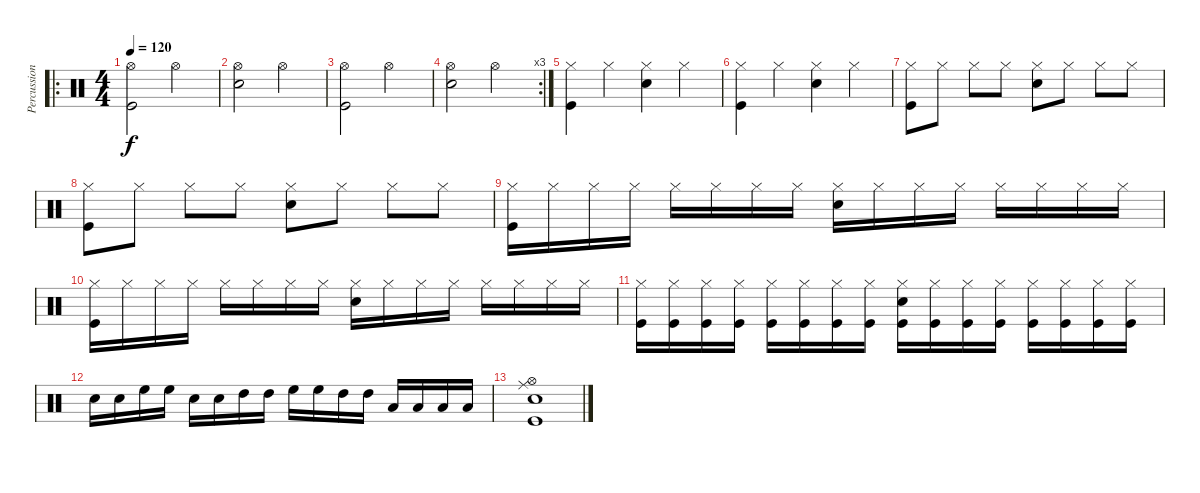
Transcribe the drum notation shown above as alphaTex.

\track ("Percussion" "Percussion") {instrument percussion}
\staff {score}
\articulation defaults
\ro
\ts (4 4)
\tempo 120
\clef neutral
\ks c
("Hi-Hat (open)" "Kick (hit)").2{dy f} "Hi-Hat (open)".2 |
("Hi-Hat (open)" "Snare (hit) 2").2 "Hi-Hat (open)".2 |
("Hi-Hat (open)" "Kick (hit)").2 "Hi-Hat (open)".2 |
\rc 3
("Hi-Hat (open)" "Snare (hit) 2").2 "Hi-Hat (open)".2 |
("Hi-Hat (closed)" "Kick (hit)").4 "Hi-Hat (closed)".4 ("Hi-Hat (closed)" "Snare (hit) 2").4 "Hi-Hat (closed)".4 |
("Hi-Hat (closed)" "Kick (hit)").4 "Hi-Hat (closed)".4 ("Hi-Hat (closed)" "Snare (hit) 2").4 "Hi-Hat (closed)".4 |
("Hi-Hat (closed)" "Kick (hit)").8 "Hi-Hat (closed)".8 "Hi-Hat (closed)".8 "Hi-Hat (closed)".8 ("Hi-Hat (closed)" "Snare (hit) 2").8 "Hi-Hat (closed)".8 "Hi-Hat (closed)".8 "Hi-Hat (closed)".8 |
("Hi-Hat (closed)" "Kick (hit)").8 "Hi-Hat (closed)".8 "Hi-Hat (closed)".8 "Hi-Hat (closed)".8 ("Hi-Hat (closed)" "Snare (hit) 2").8 "Hi-Hat (closed)".8 "Hi-Hat (closed)".8 "Hi-Hat (closed)".8 |
("Hi-Hat (closed)" "Kick (hit)").16 "Hi-Hat (closed)".16 "Hi-Hat (closed)".16 "Hi-Hat (closed)".16 "Hi-Hat (closed)".16 "Hi-Hat (closed)".16 "Hi-Hat (closed)".16 "Hi-Hat (closed)".16 ("Hi-Hat (closed)" "Snare (hit) 2").16 "Hi-Hat (closed)".16 "Hi-Hat (closed)".16 "Hi-Hat (closed)".16 "Hi-Hat (closed)".16 "Hi-Hat (closed)".16 "Hi-Hat (closed)".16 "Hi-Hat (closed)".16 |
("Hi-Hat (closed)" "Kick (hit)").16 "Hi-Hat (closed)".16 "Hi-Hat (closed)".16 "Hi-Hat (closed)".16 "Hi-Hat (closed)".16 "Hi-Hat (closed)".16 "Hi-Hat (closed)".16 "Hi-Hat (closed)".16 ("Hi-Hat (closed)" "Snare (hit) 2").16 "Hi-Hat (closed)".16 "Hi-Hat (closed)".16 "Hi-Hat (closed)".16 "Hi-Hat (closed)".16 "Hi-Hat (closed)".16 "Hi-Hat (closed)".16 "Hi-Hat (closed)".16 |
("Hi-Hat (closed)" "Kick (hit)").16 ("Hi-Hat (closed)" "Kick (hit)").16 ("Hi-Hat (closed)" "Kick (hit)").16 ("Hi-Hat (closed)" "Kick (hit)").16 ("Hi-Hat (closed)" "Kick (hit)").16 ("Hi-Hat (closed)" "Kick (hit)").16 ("Hi-Hat (closed)" "Kick (hit)").16 ("Hi-Hat (closed)" "Kick (hit)").16 ("Hi-Hat (closed)" "Snare (hit) 2" "Kick (hit)").16 ("Hi-Hat (closed)" "Kick (hit)").16 ("Hi-Hat (closed)" "Kick (hit)").16 ("Hi-Hat (closed)" "Kick (hit)").16 ("Hi-Hat (closed)" "Kick (hit)").16 ("Hi-Hat (closed)" "Kick (hit)").16 ("Hi-Hat (closed)" "Kick (hit)").16 ("Hi-Hat (closed)" "Kick (hit)").16 |
"Snare (hit) 2".16 "Snare (hit) 2".16 "High Floor Tom (hit)".16 "High Floor Tom (hit)".16 "Snare (hit) 2".16 "Snare (hit) 2".16 "High Tom (hit)".16 "High Tom (hit)".16 "High Floor Tom (hit)".16 "High Floor Tom (hit)".16 "High Tom (hit)".16 "High Tom (hit)".16 "Low Tom (hit)".16 "Low Tom (hit)".16 "Low Floor Tom (hit)".16 "Low Floor Tom (hit)".16 |
("Ride (middle)" "Hi-Hat (open)" "Snare (hit) 2" "Kick (hit)").1
